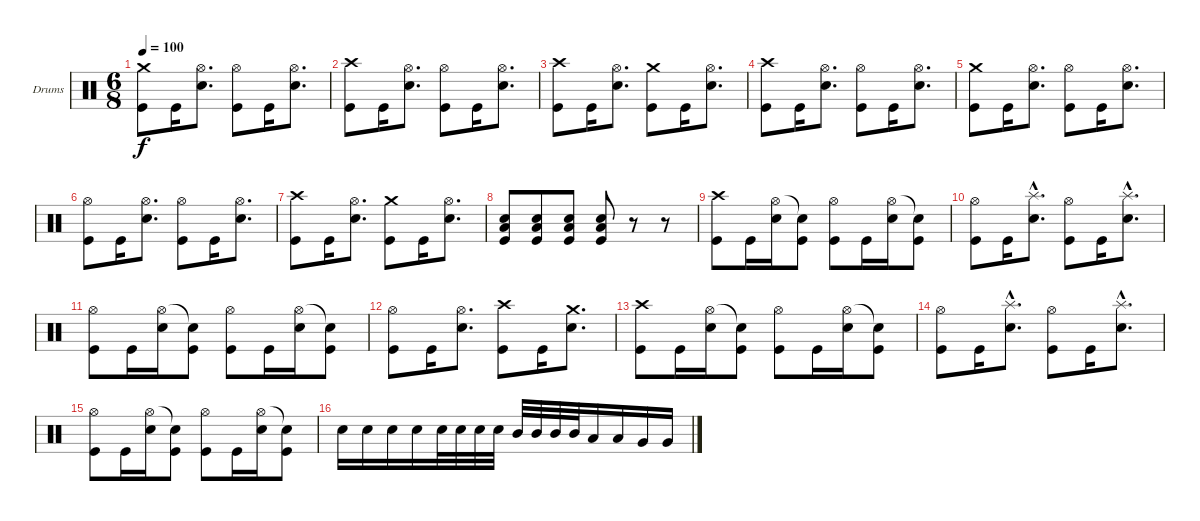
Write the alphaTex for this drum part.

\defaultSystemsLayout 4
\bracketExtendMode groupsimilarinstruments
\firstSystemTrackNameOrientation horizontal
\otherSystemsTrackNameOrientation horizontal
\track ("Stefan Schwarzmann" "Drums") {instrument percussion}
\staff {score}
\articulation defaults
\ts (6 8)
\tempo 100
\clef neutral
\ks c
("Kick (hit)" "Crash medium (hit)").8{dy f} "Kick (hit)".16 ("Snare (hit) 2" "Hi-Hat (open)").8{d} ("Kick (hit)" "Hi-Hat (open)").8 "Kick (hit)".16 ("Snare (hit) 2" "Hi-Hat (open)").8{d} |
("Kick (hit)" "Crash high (hit)").8 "Kick (hit)".16 ("Snare (hit) 2" "Hi-Hat (open)").8{d} ("Kick (hit)" "Hi-Hat (open)").8 "Kick (hit)".16 ("Snare (hit) 2" "Hi-Hat (open)").8{d} |
("Kick (hit)" "Crash high (hit)").8 "Kick (hit)".16 ("Snare (hit) 2" "Hi-Hat (open)").8{d} ("Kick (hit)" "Crash medium (hit)").8 "Kick (hit)".16 ("Snare (hit) 2" "Hi-Hat (open)").8{d} |
("Kick (hit)" "Crash high (hit)").8 "Kick (hit)".16 ("Snare (hit) 2" "Hi-Hat (open)").8{d} ("Kick (hit)" "Hi-Hat (open)").8 "Kick (hit)".16 ("Snare (hit) 2" "Hi-Hat (open)").8{d} |
("Kick (hit)" "Crash medium (hit)").8 "Kick (hit)".16 ("Snare (hit) 2" "Hi-Hat (open)").8{d} ("Kick (hit)" "Hi-Hat (open)").8 "Kick (hit)".16 ("Snare (hit) 2" "Hi-Hat (open)").8{d} |
("Kick (hit)" "Hi-Hat (open)").8 "Kick (hit)".16 ("Snare (hit) 2" "Hi-Hat (open)").8{d} ("Kick (hit)" "Hi-Hat (open)").8 "Kick (hit)".16 ("Snare (hit) 2" "Hi-Hat (open)").8{d} |
("Kick (hit)" "Crash high (hit)").8 "Kick (hit)".16 ("Snare (hit) 2" "Hi-Hat (open)").8{d} ("Kick (hit)" "Crash medium (hit)").8 "Kick (hit)".16 ("Snare (hit) 2" "Hi-Hat (open)").8{d} |
("Kick (hit)" "Snare (hit) 2" "Low Tom (hit)").8 ("Kick (hit)" "Snare (hit) 2" "Low Tom (hit)").8 ("Kick (hit)" "Snare (hit) 2" "Low Tom (hit)").8 ("Kick (hit)" "Snare (hit) 2" "Low Tom (hit)").8 r.8 r.8 |
("Kick (hit)" "Crash high (hit)").8 "Kick (hit)".16 ("Snare (hit) 2" "Hi-Hat (open)").16 ("Kick (hit)" "Snare (hit) 2"{t}).8 ("Kick (hit)" "Hi-Hat (open)").8 "Kick (hit)".16 ("Snare (hit) 2" "Hi-Hat (open)").16 ("Kick (hit)" "Snare (hit) 2"{t}).8 |
("Kick (hit)" "Hi-Hat (open)").8 "Kick (hit)".16 ("Snare (hit) 2" "Splash (hit)"{hac}).8{d} ("Kick (hit)" "Hi-Hat (open)").8 "Kick (hit)".16 ("Snare (hit) 2" "Splash (hit)"{hac}).8{d} |
("Kick (hit)" "Hi-Hat (open)").8 "Kick (hit)".16 ("Snare (hit) 2" "Hi-Hat (open)").16 ("Kick (hit)" "Snare (hit) 2"{t}).8 ("Kick (hit)" "Hi-Hat (open)").8 "Kick (hit)".16 ("Snare (hit) 2" "Hi-Hat (open)").16 ("Kick (hit)" "Snare (hit) 2"{t}).8 |
("Kick (hit)" "Hi-Hat (open)").8 "Kick (hit)".16 ("Snare (hit) 2" "Hi-Hat (open)").8{d} ("Kick (hit)" "Crash high (hit)").8 "Kick (hit)".16 ("Snare (hit) 2" "Crash medium (hit)").8{d} |
("Kick (hit)" "Crash high (hit)").8 "Kick (hit)".16 ("Snare (hit) 2" "Hi-Hat (open)").16 ("Kick (hit)" "Snare (hit) 2"{t}).8 ("Kick (hit)" "Hi-Hat (open)").8 "Kick (hit)".16 ("Snare (hit) 2" "Hi-Hat (open)").16 ("Kick (hit)" "Snare (hit) 2"{t}).8 |
("Kick (hit)" "Hi-Hat (open)").8 "Kick (hit)".16 ("Snare (hit) 2" "Splash (hit)"{hac}).8{d} ("Kick (hit)" "Hi-Hat (open)").8 "Kick (hit)".16 ("Snare (hit) 2" "Splash (hit)"{hac}).8{d} |
("Kick (hit)" "Hi-Hat (open)").8 "Kick (hit)".16 ("Snare (hit) 2" "Hi-Hat (open)").16 ("Kick (hit)" "Snare (hit) 2"{t}).8 ("Kick (hit)" "Hi-Hat (open)").8 "Kick (hit)".16 ("Snare (hit) 2" "Hi-Hat (open)").16 ("Kick (hit)" "Snare (hit) 2"{t}).8 |
"Snare (hit) 2".16 "Snare (hit) 2".16 "Snare (hit) 2".16 "Snare (hit) 2".16 "Snare (hit) 2".32 "Snare (hit) 2".32 "Snare (hit) 2".32 "Snare (hit) 2".32 "Mid Tom (hit)".32 "Mid Tom (hit)".32 "Mid Tom (hit)".32 "Mid Tom (hit)".32 "Low Tom (hit)".16 "Low Tom (hit)".16 "Very Low Tom (hit)".16 "Very Low Tom (hit)".16
